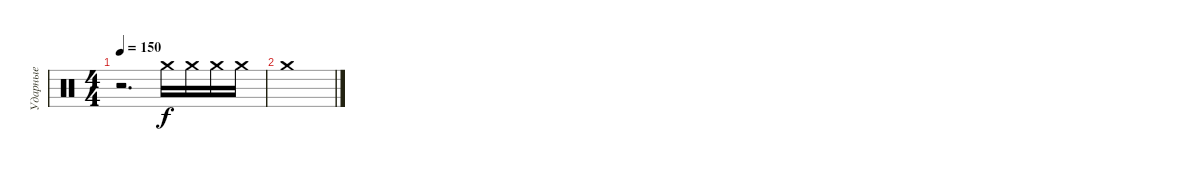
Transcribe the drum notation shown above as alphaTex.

\track ("Ударные" "Ударные") {instrument percussion}
\staff {score}
\articulation defaults
\ts (4 4)
\tempo 150
\clef neutral
\ks c
r.2{d dy f} "Crash medium (hit)".16 "Crash medium (hit)".16 "Crash medium (hit)".16 "Crash medium (hit)".16 |
"Crash medium (hit)".1
